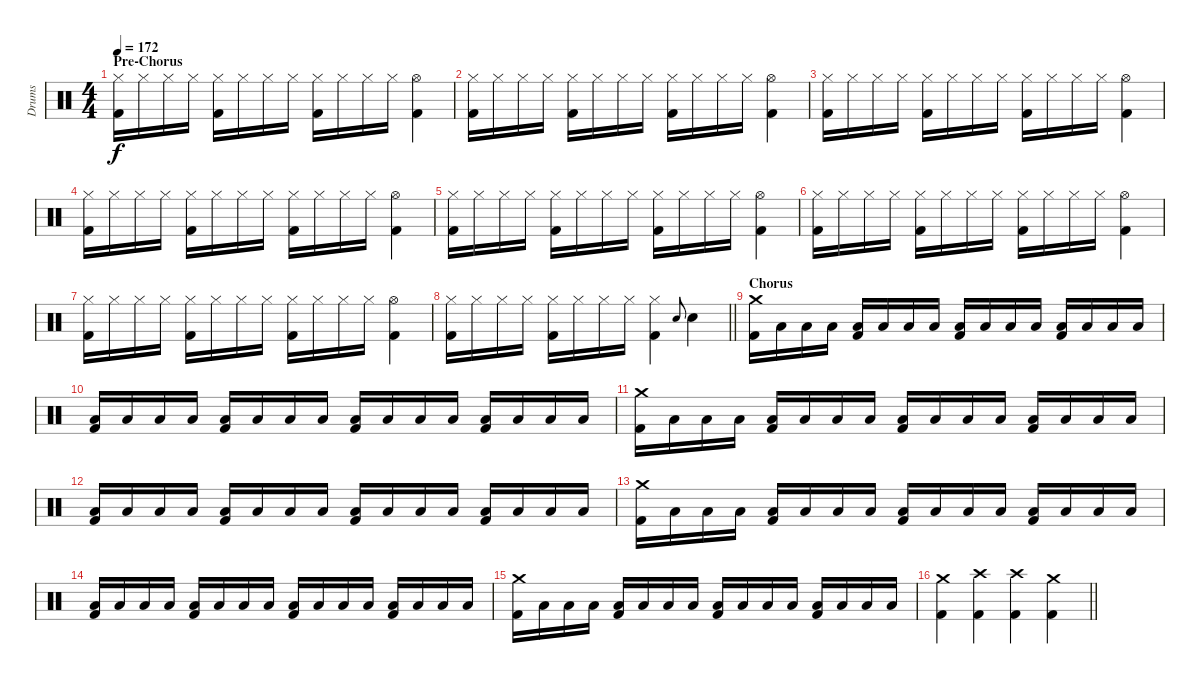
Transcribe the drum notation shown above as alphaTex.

\track ("Drums" "Drums") {instrument percussion}
\staff {score}
\articulation defaults
\ts (4 4)
\section ("" "Pre-Chorus")
\tempo 172
\clef neutral
\ks c
("Hi-Hat (closed)" "Kick (hit) 2").16{dy f} "Hi-Hat (closed)".16 "Hi-Hat (closed)".16 "Hi-Hat (closed)".16 ("Hi-Hat (closed)" "Kick (hit) 2").16 "Hi-Hat (closed)".16 "Hi-Hat (closed)".16 "Hi-Hat (closed)".16 ("Hi-Hat (closed)" "Kick (hit) 2").16 "Hi-Hat (closed)".16 "Hi-Hat (closed)".16 "Hi-Hat (closed)".16 ("Hi-Hat (open)" "Kick (hit) 2").4 |
("Hi-Hat (closed)" "Kick (hit) 2").16 "Hi-Hat (closed)".16 "Hi-Hat (closed)".16 "Hi-Hat (closed)".16 ("Hi-Hat (closed)" "Kick (hit) 2").16 "Hi-Hat (closed)".16 "Hi-Hat (closed)".16 "Hi-Hat (closed)".16 ("Hi-Hat (closed)" "Kick (hit) 2").16 "Hi-Hat (closed)".16 "Hi-Hat (closed)".16 "Hi-Hat (closed)".16 ("Hi-Hat (open)" "Kick (hit) 2").4 |
("Hi-Hat (closed)" "Kick (hit) 2").16 "Hi-Hat (closed)".16 "Hi-Hat (closed)".16 "Hi-Hat (closed)".16 ("Hi-Hat (closed)" "Kick (hit) 2").16 "Hi-Hat (closed)".16 "Hi-Hat (closed)".16 "Hi-Hat (closed)".16 ("Hi-Hat (closed)" "Kick (hit) 2").16 "Hi-Hat (closed)".16 "Hi-Hat (closed)".16 "Hi-Hat (closed)".16 ("Hi-Hat (open)" "Kick (hit) 2").4 |
("Hi-Hat (closed)" "Kick (hit) 2").16 "Hi-Hat (closed)".16 "Hi-Hat (closed)".16 "Hi-Hat (closed)".16 ("Hi-Hat (closed)" "Kick (hit) 2").16 "Hi-Hat (closed)".16 "Hi-Hat (closed)".16 "Hi-Hat (closed)".16 ("Hi-Hat (closed)" "Kick (hit) 2").16 "Hi-Hat (closed)".16 "Hi-Hat (closed)".16 "Hi-Hat (closed)".16 ("Hi-Hat (open)" "Kick (hit) 2").4 |
("Hi-Hat (closed)" "Kick (hit) 2").16 "Hi-Hat (closed)".16 "Hi-Hat (closed)".16 "Hi-Hat (closed)".16 ("Hi-Hat (closed)" "Kick (hit) 2").16 "Hi-Hat (closed)".16 "Hi-Hat (closed)".16 "Hi-Hat (closed)".16 ("Hi-Hat (closed)" "Kick (hit) 2").16 "Hi-Hat (closed)".16 "Hi-Hat (closed)".16 "Hi-Hat (closed)".16 ("Hi-Hat (open)" "Kick (hit) 2").4 |
("Hi-Hat (closed)" "Kick (hit) 2").16 "Hi-Hat (closed)".16 "Hi-Hat (closed)".16 "Hi-Hat (closed)".16 ("Hi-Hat (closed)" "Kick (hit) 2").16 "Hi-Hat (closed)".16 "Hi-Hat (closed)".16 "Hi-Hat (closed)".16 ("Hi-Hat (closed)" "Kick (hit) 2").16 "Hi-Hat (closed)".16 "Hi-Hat (closed)".16 "Hi-Hat (closed)".16 ("Hi-Hat (open)" "Kick (hit) 2").4 |
("Hi-Hat (closed)" "Kick (hit) 2").16 "Hi-Hat (closed)".16 "Hi-Hat (closed)".16 "Hi-Hat (closed)".16 ("Hi-Hat (closed)" "Kick (hit) 2").16 "Hi-Hat (closed)".16 "Hi-Hat (closed)".16 "Hi-Hat (closed)".16 ("Hi-Hat (closed)" "Kick (hit) 2").16 "Hi-Hat (closed)".16 "Hi-Hat (closed)".16 "Hi-Hat (closed)".16 ("Hi-Hat (open)" "Kick (hit) 2").4 |
\barLineRight lightlight
("Hi-Hat (closed)" "Kick (hit) 2").16 "Hi-Hat (closed)".16 "Hi-Hat (closed)".16 "Hi-Hat (closed)".16 ("Hi-Hat (closed)" "Kick (hit) 2").16 "Hi-Hat (closed)".16 "Hi-Hat (closed)".16 "Hi-Hat (closed)".16 ("Hi-Hat (closed)" "Kick (hit) 2").4 "Electric Snare (hit)".8{gr onbeat} "Electric Snare (hit)".4 |
\section ("" "Chorus")
("Crash medium (hit)" "Kick (hit) 2").16 "Low Tom (hit)".16 "Low Tom (hit)".16 "Low Tom (hit)".16 ("Low Tom (hit)" "Kick (hit) 2").16 "Low Tom (hit)".16 "Low Tom (hit)".16 "Low Tom (hit)".16 ("Low Tom (hit)" "Kick (hit) 2").16 "Low Tom (hit)".16 "Low Tom (hit)".16 "Low Tom (hit)".16 ("Low Tom (hit)" "Kick (hit) 2").16 "Low Tom (hit)".16 "Low Tom (hit)".16 "Low Tom (hit)".16 |
("Low Tom (hit)" "Kick (hit) 2").16 "Low Tom (hit)".16 "Low Tom (hit)".16 "Low Tom (hit)".16 ("Low Tom (hit)" "Kick (hit) 2").16 "Low Tom (hit)".16 "Low Tom (hit)".16 "Low Tom (hit)".16 ("Low Tom (hit)" "Kick (hit) 2").16 "Low Tom (hit)".16 "Low Tom (hit)".16 "Low Tom (hit)".16 ("Low Tom (hit)" "Kick (hit) 2").16 "Low Tom (hit)".16 "Low Tom (hit)".16 "Low Tom (hit)".16 |
("Crash medium (hit)" "Kick (hit) 2").16 "Low Tom (hit)".16 "Low Tom (hit)".16 "Low Tom (hit)".16 ("Low Tom (hit)" "Kick (hit) 2").16 "Low Tom (hit)".16 "Low Tom (hit)".16 "Low Tom (hit)".16 ("Low Tom (hit)" "Kick (hit) 2").16 "Low Tom (hit)".16 "Low Tom (hit)".16 "Low Tom (hit)".16 ("Low Tom (hit)" "Kick (hit) 2").16 "Low Tom (hit)".16 "Low Tom (hit)".16 "Low Tom (hit)".16 |
("Low Tom (hit)" "Kick (hit) 2").16 "Low Tom (hit)".16 "Low Tom (hit)".16 "Low Tom (hit)".16 ("Low Tom (hit)" "Kick (hit) 2").16 "Low Tom (hit)".16 "Low Tom (hit)".16 "Low Tom (hit)".16 ("Low Tom (hit)" "Kick (hit) 2").16 "Low Tom (hit)".16 "Low Tom (hit)".16 "Low Tom (hit)".16 ("Low Tom (hit)" "Kick (hit) 2").16 "Low Tom (hit)".16 "Low Tom (hit)".16 "Low Tom (hit)".16 |
("Crash medium (hit)" "Kick (hit) 2").16 "Low Tom (hit)".16 "Low Tom (hit)".16 "Low Tom (hit)".16 ("Low Tom (hit)" "Kick (hit) 2").16 "Low Tom (hit)".16 "Low Tom (hit)".16 "Low Tom (hit)".16 ("Low Tom (hit)" "Kick (hit) 2").16 "Low Tom (hit)".16 "Low Tom (hit)".16 "Low Tom (hit)".16 ("Low Tom (hit)" "Kick (hit) 2").16 "Low Tom (hit)".16 "Low Tom (hit)".16 "Low Tom (hit)".16 |
("Low Tom (hit)" "Kick (hit) 2").16 "Low Tom (hit)".16 "Low Tom (hit)".16 "Low Tom (hit)".16 ("Low Tom (hit)" "Kick (hit) 2").16 "Low Tom (hit)".16 "Low Tom (hit)".16 "Low Tom (hit)".16 ("Low Tom (hit)" "Kick (hit) 2").16 "Low Tom (hit)".16 "Low Tom (hit)".16 "Low Tom (hit)".16 ("Low Tom (hit)" "Kick (hit) 2").16 "Low Tom (hit)".16 "Low Tom (hit)".16 "Low Tom (hit)".16 |
("Crash medium (hit)" "Kick (hit) 2").16 "Low Tom (hit)".16 "Low Tom (hit)".16 "Low Tom (hit)".16 ("Low Tom (hit)" "Kick (hit) 2").16 "Low Tom (hit)".16 "Low Tom (hit)".16 "Low Tom (hit)".16 ("Low Tom (hit)" "Kick (hit) 2").16 "Low Tom (hit)".16 "Low Tom (hit)".16 "Low Tom (hit)".16 ("Low Tom (hit)" "Kick (hit) 2").16 "Low Tom (hit)".16 "Low Tom (hit)".16 "Low Tom (hit)".16 |
\barLineRight lightlight
("Crash medium (hit)" "Kick (hit) 2").4 ("Crash high (hit)" "Kick (hit) 2").4 ("Crash high (hit)" "Kick (hit) 2").4 ("Crash medium (hit)" "Kick (hit) 2").4
